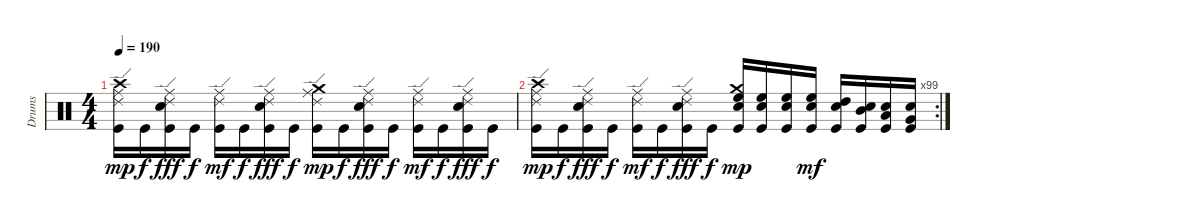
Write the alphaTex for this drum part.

\track ("Drums" "Drums") {instrument percussion}
\staff {score}
\articulation defaults
\ts (4 4)
\tempo 190
\clef neutral
\ks c
("Kick (hit)" "Ride (edge) 2" "Ride (middle)" "Crash high (hit)").16{dy mp} "Kick (hit)".16{dy f} ("Electric Snare (hit)" "Kick (hit)" "Ride (middle)" "Ride (edge) 2").16{dy fff} "Kick (hit)".16{dy f} ("Kick (hit)" "Ride (edge) 2" "Ride (middle)").16{dy mf} "Kick (hit)".16{dy f} ("Electric Snare (hit)" "Kick (hit)" "Ride (edge) 2" "Ride (middle)").16{dy fff} "Kick (hit)".16{dy f} ("Kick (hit)" "Ride (edge) 2" "Ride (middle)" "Crash medium (hit)").16{dy mp} "Kick (hit)".16{dy f} ("Electric Snare (hit)" "Kick (hit)" "Ride (middle)" "Ride (edge) 2").16{dy fff} "Kick (hit)".16{dy f} ("Kick (hit)" "Ride (edge) 2" "Ride (middle)").16{dy mf} "Kick (hit)".16{dy f} ("Electric Snare (hit)" "Kick (hit)" "Ride (edge) 2" "Ride (middle)").16{dy fff} "Kick (hit)".16{dy f} |
\rc 99
("Kick (hit)" "Ride (edge) 2" "Ride (middle)" "Crash high (hit)").16{dy mp} "Kick (hit)".16{dy f} ("Electric Snare (hit)" "Kick (hit)" "Ride (middle)" "Ride (edge) 2").16{dy fff} "Kick (hit)".16{dy f} ("Kick (hit)" "Ride (edge) 2" "Ride (middle)").16{dy mf} "Kick (hit)".16{dy f} ("Electric Snare (hit)" "Kick (hit)" "Ride (edge) 2" "Ride (middle)").16{dy fff} "Kick (hit)".16{dy f} ("High Floor Tom (hit)" "Kick (hit)" "Electric Snare (hit)" "Crash medium (hit)").16{dy mp} ("High Floor Tom (hit)" "Kick (hit)" "Electric Snare (hit)").16 ("High Floor Tom (hit)" "Electric Snare (hit)" "Kick (hit)").16 ("Electric Snare (hit)" "High Floor Tom (hit)" "Kick (hit)").16{dy mf} ("Kick (hit)" "Electric Snare (hit)" "High Tom (hit)").16 ("Kick (hit)" "Mid Tom (hit)" "Electric Snare (hit)").16 ("Kick (hit)" "Electric Snare (hit)" "Low Tom (hit)").16 ("Kick (hit)" "Very Low Tom (hit)" "Electric Snare (hit)").16
